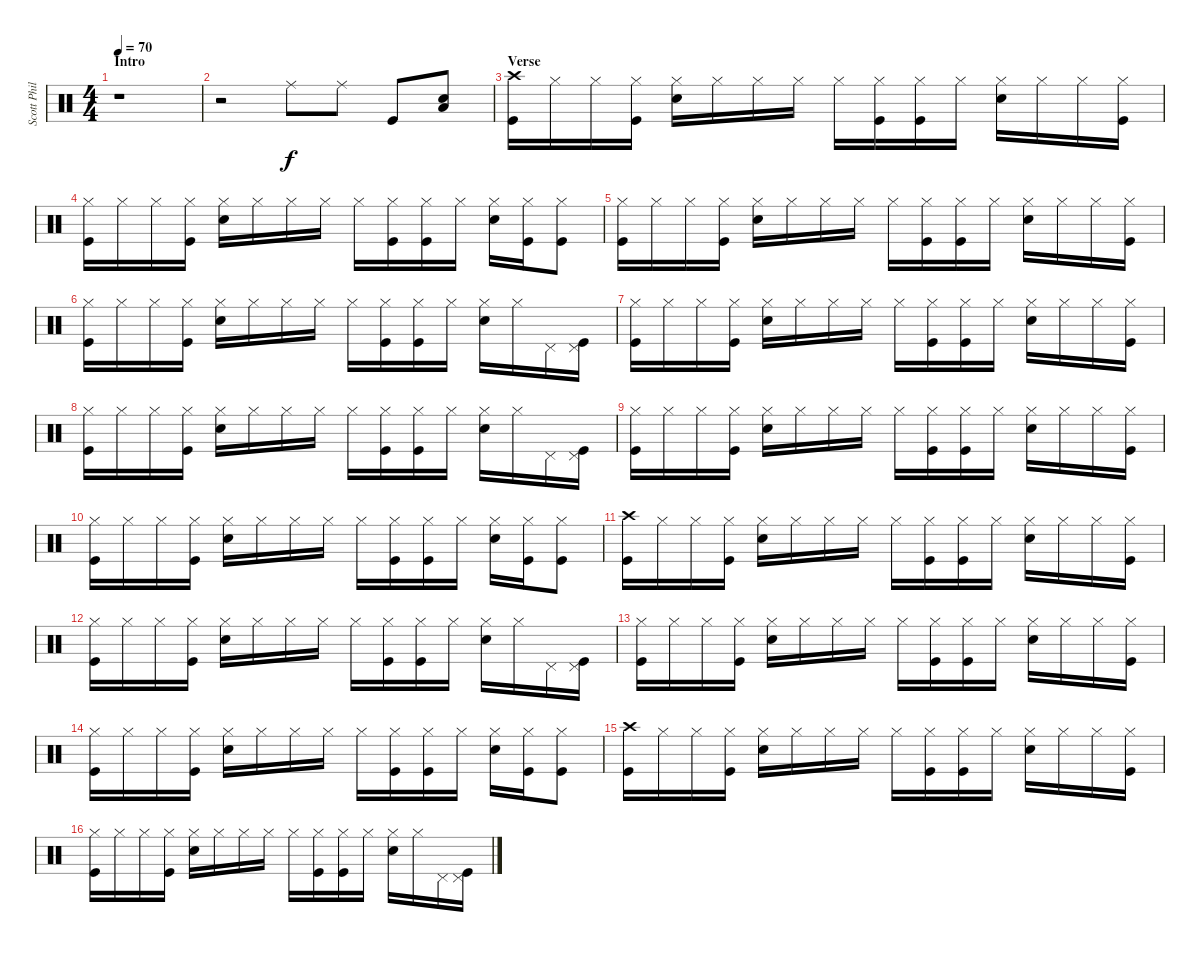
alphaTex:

\track ("Scott Phillips" "Scott Phil") {instrument percussion}
\staff {score}
\articulation defaults
\ts (4 4)
\section ("" "Intro")
\tempo 70
\clef neutral
\ks c
r.1{dy f} |
r.2 "Ride (middle)".8 "Ride (middle)".8 "Kick (hit)".8 ("Low Tom (hit)" "Snare (hit) 2").8 |
\section ("" "Verse")
("Crash high (hit)" "Kick (hit)").16 "Hi-Hat (closed)".16 "Hi-Hat (closed)".16 ("Hi-Hat (closed)" "Kick (hit)").16 ("Hi-Hat (closed)" "Snare (hit) 2").16 "Hi-Hat (closed)".16 "Hi-Hat (closed)".16 "Hi-Hat (closed)".16 "Hi-Hat (closed)".16 ("Hi-Hat (closed)" "Kick (hit)").16 ("Hi-Hat (closed)" "Kick (hit)").16 "Hi-Hat (closed)".16 ("Hi-Hat (closed)" "Snare (hit) 2").16 "Hi-Hat (closed)".16 "Hi-Hat (closed)".16 ("Hi-Hat (closed)" "Kick (hit)").16 |
("Hi-Hat (closed)" "Kick (hit)").16 "Hi-Hat (closed)".16 "Hi-Hat (closed)".16 ("Hi-Hat (closed)" "Kick (hit)").16 ("Hi-Hat (closed)" "Snare (hit) 2").16 "Hi-Hat (closed)".16 "Hi-Hat (closed)".16 "Hi-Hat (closed)".16 "Hi-Hat (closed)".16 ("Hi-Hat (closed)" "Kick (hit)").16 ("Hi-Hat (closed)" "Kick (hit)").16 "Hi-Hat (closed)".16 ("Hi-Hat (closed)" "Snare (hit) 2").16 ("Hi-Hat (closed)" "Kick (hit)").16 ("Hi-Hat (closed)" "Kick (hit)").8 |
("Hi-Hat (closed)" "Kick (hit)").16 "Hi-Hat (closed)".16 "Hi-Hat (closed)".16 ("Hi-Hat (closed)" "Kick (hit)").16 ("Hi-Hat (closed)" "Snare (hit) 2").16 "Hi-Hat (closed)".16 "Hi-Hat (closed)".16 "Hi-Hat (closed)".16 "Hi-Hat (closed)".16 ("Hi-Hat (closed)" "Kick (hit)").16 ("Hi-Hat (closed)" "Kick (hit)").16 "Hi-Hat (closed)".16 ("Hi-Hat (closed)" "Snare (hit) 2").16 "Hi-Hat (closed)".16 "Hi-Hat (closed)".16 ("Hi-Hat (closed)" "Kick (hit)").16 |
("Hi-Hat (closed)" "Kick (hit)").16 "Hi-Hat (closed)".16 "Hi-Hat (closed)".16 ("Hi-Hat (closed)" "Kick (hit)").16 ("Hi-Hat (closed)" "Snare (hit) 2").16 "Hi-Hat (closed)".16 "Hi-Hat (closed)".16 "Hi-Hat (closed)".16 "Hi-Hat (closed)".16 ("Hi-Hat (closed)" "Kick (hit)").16 ("Hi-Hat (closed)" "Kick (hit)").16 "Hi-Hat (closed)".16 ("Hi-Hat (closed)" "Snare (hit) 2").16 "Hi-Hat (closed)".16 "Pedal Hi-Hat (hit)".16 ("Pedal Hi-Hat (hit)" "Kick (hit)").16 |
("Hi-Hat (closed)" "Kick (hit)").16 "Hi-Hat (closed)".16 "Hi-Hat (closed)".16 ("Hi-Hat (closed)" "Kick (hit)").16 ("Hi-Hat (closed)" "Snare (hit) 2").16 "Hi-Hat (closed)".16 "Hi-Hat (closed)".16 "Hi-Hat (closed)".16 "Hi-Hat (closed)".16 ("Hi-Hat (closed)" "Kick (hit)").16 ("Hi-Hat (closed)" "Kick (hit)").16 "Hi-Hat (closed)".16 ("Hi-Hat (closed)" "Snare (hit) 2").16 "Hi-Hat (closed)".16 "Hi-Hat (closed)".16 ("Hi-Hat (closed)" "Kick (hit)").16 |
("Hi-Hat (closed)" "Kick (hit)").16 "Hi-Hat (closed)".16 "Hi-Hat (closed)".16 ("Hi-Hat (closed)" "Kick (hit)").16 ("Hi-Hat (closed)" "Snare (hit) 2").16 "Hi-Hat (closed)".16 "Hi-Hat (closed)".16 "Hi-Hat (closed)".16 "Hi-Hat (closed)".16 ("Hi-Hat (closed)" "Kick (hit)").16 ("Hi-Hat (closed)" "Kick (hit)").16 "Hi-Hat (closed)".16 ("Hi-Hat (closed)" "Snare (hit) 2").16 "Hi-Hat (closed)".16 "Pedal Hi-Hat (hit)".16 ("Pedal Hi-Hat (hit)" "Kick (hit)").16 |
("Hi-Hat (closed)" "Kick (hit)").16 "Hi-Hat (closed)".16 "Hi-Hat (closed)".16 ("Hi-Hat (closed)" "Kick (hit)").16 ("Hi-Hat (closed)" "Snare (hit) 2").16 "Hi-Hat (closed)".16 "Hi-Hat (closed)".16 "Hi-Hat (closed)".16 "Hi-Hat (closed)".16 ("Hi-Hat (closed)" "Kick (hit)").16 ("Hi-Hat (closed)" "Kick (hit)").16 "Hi-Hat (closed)".16 ("Hi-Hat (closed)" "Snare (hit) 2").16 "Hi-Hat (closed)".16 "Hi-Hat (closed)".16 ("Hi-Hat (closed)" "Kick (hit)").16 |
("Hi-Hat (closed)" "Kick (hit)").16 "Hi-Hat (closed)".16 "Hi-Hat (closed)".16 ("Hi-Hat (closed)" "Kick (hit)").16 ("Hi-Hat (closed)" "Snare (hit) 2").16 "Hi-Hat (closed)".16 "Hi-Hat (closed)".16 "Hi-Hat (closed)".16 "Hi-Hat (closed)".16 ("Hi-Hat (closed)" "Kick (hit)").16 ("Hi-Hat (closed)" "Kick (hit)").16 "Hi-Hat (closed)".16 ("Hi-Hat (closed)" "Snare (hit) 2").16 ("Hi-Hat (closed)" "Kick (hit)").16 ("Hi-Hat (closed)" "Kick (hit)").8 |
("Crash high (hit)" "Kick (hit)").16 "Hi-Hat (closed)".16 "Hi-Hat (closed)".16 ("Hi-Hat (closed)" "Kick (hit)").16 ("Hi-Hat (closed)" "Snare (hit) 2").16 "Hi-Hat (closed)".16 "Hi-Hat (closed)".16 "Hi-Hat (closed)".16 "Hi-Hat (closed)".16 ("Hi-Hat (closed)" "Kick (hit)").16 ("Hi-Hat (closed)" "Kick (hit)").16 "Hi-Hat (closed)".16 ("Hi-Hat (closed)" "Snare (hit) 2").16 "Hi-Hat (closed)".16 "Hi-Hat (closed)".16 ("Hi-Hat (closed)" "Kick (hit)").16 |
("Hi-Hat (closed)" "Kick (hit)").16 "Hi-Hat (closed)".16 "Hi-Hat (closed)".16 ("Hi-Hat (closed)" "Kick (hit)").16 ("Hi-Hat (closed)" "Snare (hit) 2").16 "Hi-Hat (closed)".16 "Hi-Hat (closed)".16 "Hi-Hat (closed)".16 "Hi-Hat (closed)".16 ("Hi-Hat (closed)" "Kick (hit)").16 ("Hi-Hat (closed)" "Kick (hit)").16 "Hi-Hat (closed)".16 ("Hi-Hat (closed)" "Snare (hit) 2").16 "Hi-Hat (closed)".16 "Pedal Hi-Hat (hit)".16 ("Pedal Hi-Hat (hit)" "Kick (hit)").16 |
("Hi-Hat (closed)" "Kick (hit)").16 "Hi-Hat (closed)".16 "Hi-Hat (closed)".16 ("Hi-Hat (closed)" "Kick (hit)").16 ("Hi-Hat (closed)" "Snare (hit) 2").16 "Hi-Hat (closed)".16 "Hi-Hat (closed)".16 "Hi-Hat (closed)".16 "Hi-Hat (closed)".16 ("Hi-Hat (closed)" "Kick (hit)").16 ("Hi-Hat (closed)" "Kick (hit)").16 "Hi-Hat (closed)".16 ("Hi-Hat (closed)" "Snare (hit) 2").16 "Hi-Hat (closed)".16 "Hi-Hat (closed)".16 ("Hi-Hat (closed)" "Kick (hit)").16 |
("Hi-Hat (closed)" "Kick (hit)").16 "Hi-Hat (closed)".16 "Hi-Hat (closed)".16 ("Hi-Hat (closed)" "Kick (hit)").16 ("Hi-Hat (closed)" "Snare (hit) 2").16 "Hi-Hat (closed)".16 "Hi-Hat (closed)".16 "Hi-Hat (closed)".16 "Hi-Hat (closed)".16 ("Hi-Hat (closed)" "Kick (hit)").16 ("Hi-Hat (closed)" "Kick (hit)").16 "Hi-Hat (closed)".16 ("Hi-Hat (closed)" "Snare (hit) 2").16 ("Hi-Hat (closed)" "Kick (hit)").16 ("Hi-Hat (closed)" "Kick (hit)").8 |
("Crash high (hit)" "Kick (hit)").16 "Hi-Hat (closed)".16 "Hi-Hat (closed)".16 ("Hi-Hat (closed)" "Kick (hit)").16 ("Hi-Hat (closed)" "Snare (hit) 2").16 "Hi-Hat (closed)".16 "Hi-Hat (closed)".16 "Hi-Hat (closed)".16 "Hi-Hat (closed)".16 ("Hi-Hat (closed)" "Kick (hit)").16 ("Hi-Hat (closed)" "Kick (hit)").16 "Hi-Hat (closed)".16 ("Hi-Hat (closed)" "Snare (hit) 2").16 "Hi-Hat (closed)".16 "Hi-Hat (closed)".16 ("Hi-Hat (closed)" "Kick (hit)").16 |
("Hi-Hat (closed)" "Kick (hit)").16 "Hi-Hat (closed)".16 "Hi-Hat (closed)".16 ("Hi-Hat (closed)" "Kick (hit)").16 ("Hi-Hat (closed)" "Snare (hit) 2").16 "Hi-Hat (closed)".16 "Hi-Hat (closed)".16 "Hi-Hat (closed)".16 "Hi-Hat (closed)".16 ("Hi-Hat (closed)" "Kick (hit)").16 ("Hi-Hat (closed)" "Kick (hit)").16 "Hi-Hat (closed)".16 ("Hi-Hat (closed)" "Snare (hit) 2").16 "Hi-Hat (closed)".16 "Pedal Hi-Hat (hit)".16 ("Pedal Hi-Hat (hit)" "Kick (hit)").16
